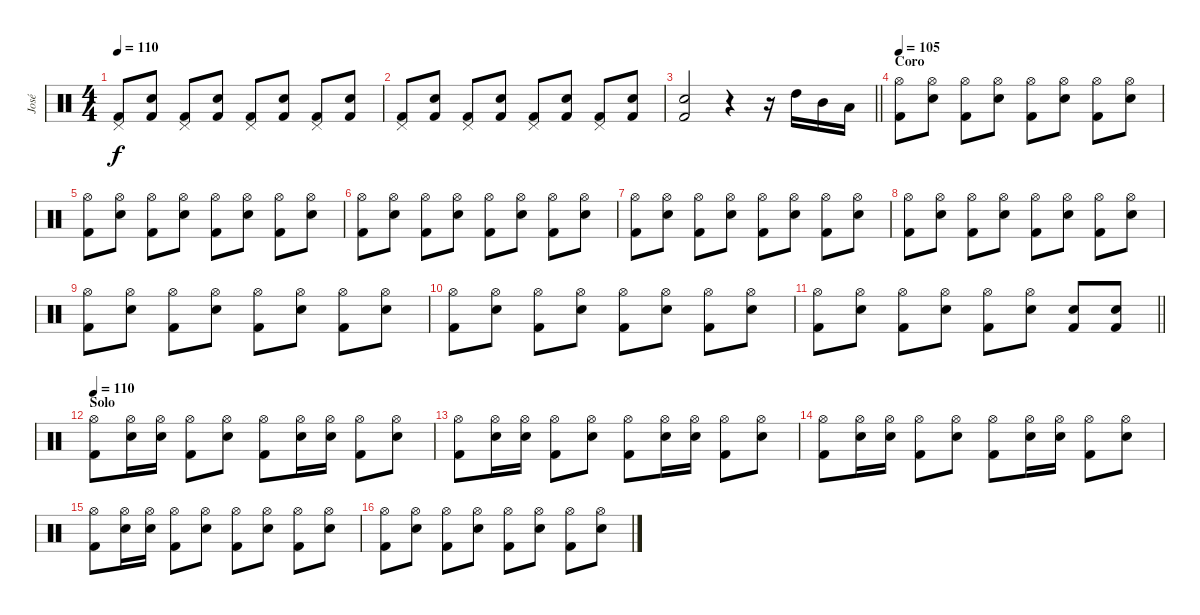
\track ("José" "José") {instrument percussion}
\staff
\articulation defaults
\ts (4 4)
\tempo 110
\clef neutral
\ks c
("Pedal Hi-Hat (hit)" "Kick (hit) 2").8{dy f} ("Electric Snare (hit)" "Kick (hit) 2").8 ("Pedal Hi-Hat (hit)" "Kick (hit) 2").8 ("Electric Snare (hit)" "Kick (hit) 2").8 ("Pedal Hi-Hat (hit)" "Kick (hit) 2").8 ("Electric Snare (hit)" "Kick (hit) 2").8 ("Pedal Hi-Hat (hit)" "Kick (hit) 2").8 ("Electric Snare (hit)" "Kick (hit) 2").8 |
("Pedal Hi-Hat (hit)" "Kick (hit) 2").8 ("Electric Snare (hit)" "Kick (hit) 2").8 ("Pedal Hi-Hat (hit)" "Kick (hit) 2").8 ("Electric Snare (hit)" "Kick (hit) 2").8 ("Pedal Hi-Hat (hit)" "Kick (hit) 2").8 ("Electric Snare (hit)" "Kick (hit) 2").8 ("Pedal Hi-Hat (hit)" "Kick (hit) 2").8 ("Electric Snare (hit)" "Kick (hit) 2").8 |
\barLineRight lightlight
("Electric Snare (hit)" "Kick (hit) 2").2 r.4 r.16 "High Tom (hit)".16 "Mid Tom (hit)".16 "Low Tom (hit)".16 |
\section ("" "Coro")
\tempo 105
("Hi-Hat (open)" "Kick (hit) 2").8 ("Hi-Hat (open)" "Electric Snare (hit)").8 ("Hi-Hat (open)" "Kick (hit) 2").8 ("Hi-Hat (open)" "Electric Snare (hit)").8 ("Hi-Hat (open)" "Kick (hit) 2").8 ("Hi-Hat (open)" "Electric Snare (hit)").8 ("Hi-Hat (open)" "Kick (hit) 2").8 ("Hi-Hat (open)" "Electric Snare (hit)").8 |
("Hi-Hat (open)" "Kick (hit) 2").8 ("Hi-Hat (open)" "Electric Snare (hit)").8 ("Hi-Hat (open)" "Kick (hit) 2").8 ("Hi-Hat (open)" "Electric Snare (hit)").8 ("Hi-Hat (open)" "Kick (hit) 2").8 ("Hi-Hat (open)" "Electric Snare (hit)").8 ("Hi-Hat (open)" "Kick (hit) 2").8 ("Hi-Hat (open)" "Electric Snare (hit)").8 |
("Hi-Hat (open)" "Kick (hit) 2").8 ("Hi-Hat (open)" "Electric Snare (hit)").8 ("Hi-Hat (open)" "Kick (hit) 2").8 ("Hi-Hat (open)" "Electric Snare (hit)").8 ("Hi-Hat (open)" "Kick (hit) 2").8 ("Hi-Hat (open)" "Electric Snare (hit)").8 ("Hi-Hat (open)" "Kick (hit) 2").8 ("Hi-Hat (open)" "Electric Snare (hit)").8 |
("Hi-Hat (open)" "Kick (hit) 2").8 ("Hi-Hat (open)" "Electric Snare (hit)").8 ("Hi-Hat (open)" "Kick (hit) 2").8 ("Hi-Hat (open)" "Electric Snare (hit)").8 ("Hi-Hat (open)" "Kick (hit) 2").8 ("Hi-Hat (open)" "Electric Snare (hit)").8 ("Hi-Hat (open)" "Kick (hit) 2").8 ("Hi-Hat (open)" "Electric Snare (hit)").8 |
("Hi-Hat (open)" "Kick (hit) 2").8 ("Hi-Hat (open)" "Electric Snare (hit)").8 ("Hi-Hat (open)" "Kick (hit) 2").8 ("Hi-Hat (open)" "Electric Snare (hit)").8 ("Hi-Hat (open)" "Kick (hit) 2").8 ("Hi-Hat (open)" "Electric Snare (hit)").8 ("Hi-Hat (open)" "Kick (hit) 2").8 ("Hi-Hat (open)" "Electric Snare (hit)").8 |
("Hi-Hat (open)" "Kick (hit) 2").8 ("Hi-Hat (open)" "Electric Snare (hit)").8 ("Hi-Hat (open)" "Kick (hit) 2").8 ("Hi-Hat (open)" "Electric Snare (hit)").8 ("Hi-Hat (open)" "Kick (hit) 2").8 ("Hi-Hat (open)" "Electric Snare (hit)").8 ("Hi-Hat (open)" "Kick (hit) 2").8 ("Hi-Hat (open)" "Electric Snare (hit)").8 |
("Hi-Hat (open)" "Kick (hit) 2").8 ("Hi-Hat (open)" "Electric Snare (hit)").8 ("Hi-Hat (open)" "Kick (hit) 2").8 ("Hi-Hat (open)" "Electric Snare (hit)").8 ("Hi-Hat (open)" "Kick (hit) 2").8 ("Hi-Hat (open)" "Electric Snare (hit)").8 ("Hi-Hat (open)" "Kick (hit) 2").8 ("Hi-Hat (open)" "Electric Snare (hit)").8 |
\barLineRight lightlight
("Hi-Hat (open)" "Kick (hit) 2").8 ("Hi-Hat (open)" "Electric Snare (hit)").8 ("Hi-Hat (open)" "Kick (hit) 2").8 ("Hi-Hat (open)" "Electric Snare (hit)").8 ("Hi-Hat (open)" "Kick (hit) 2").8 ("Hi-Hat (open)" "Electric Snare (hit)").8 ("Electric Snare (hit)" "Kick (hit) 2").8 ("Electric Snare (hit)" "Kick (hit) 2").8 |
\section ("" "Solo")
\tempo 120
\tempo 110
("Hi-Hat (open)" "Kick (hit) 2").8 ("Hi-Hat (open)" "Electric Snare (hit)").16 ("Hi-Hat (open)" "Electric Snare (hit)").16 ("Hi-Hat (open)" "Kick (hit) 2").8 ("Hi-Hat (open)" "Electric Snare (hit)").8 ("Hi-Hat (open)" "Kick (hit) 2").8 ("Hi-Hat (open)" "Electric Snare (hit)").16 ("Hi-Hat (open)" "Electric Snare (hit)").16 ("Hi-Hat (open)" "Kick (hit) 2").8 ("Hi-Hat (open)" "Electric Snare (hit)").8 |
("Hi-Hat (open)" "Kick (hit) 2").8 ("Hi-Hat (open)" "Electric Snare (hit)").16 ("Hi-Hat (open)" "Electric Snare (hit)").16 ("Hi-Hat (open)" "Kick (hit) 2").8 ("Hi-Hat (open)" "Electric Snare (hit)").8 ("Hi-Hat (open)" "Kick (hit) 2").8 ("Hi-Hat (open)" "Electric Snare (hit)").16 ("Hi-Hat (open)" "Electric Snare (hit)").16 ("Hi-Hat (open)" "Kick (hit) 2").8 ("Hi-Hat (open)" "Electric Snare (hit)").8 |
("Hi-Hat (open)" "Kick (hit) 2").8 ("Hi-Hat (open)" "Electric Snare (hit)").16 ("Hi-Hat (open)" "Electric Snare (hit)").16 ("Hi-Hat (open)" "Kick (hit) 2").8 ("Hi-Hat (open)" "Electric Snare (hit)").8 ("Hi-Hat (open)" "Kick (hit) 2").8 ("Hi-Hat (open)" "Electric Snare (hit)").16 ("Hi-Hat (open)" "Electric Snare (hit)").16 ("Hi-Hat (open)" "Kick (hit) 2").8 ("Hi-Hat (open)" "Electric Snare (hit)").8 |
("Hi-Hat (open)" "Kick (hit) 2").8 ("Hi-Hat (open)" "Electric Snare (hit)").16 ("Hi-Hat (open)" "Electric Snare (hit)").16 ("Hi-Hat (open)" "Kick (hit) 2").8 ("Hi-Hat (open)" "Electric Snare (hit)").8 ("Hi-Hat (open)" "Kick (hit) 2").8 ("Hi-Hat (open)" "Electric Snare (hit)").8 ("Hi-Hat (open)" "Kick (hit) 2").8 ("Hi-Hat (open)" "Electric Snare (hit)").8 |
("Hi-Hat (open)" "Kick (hit) 2").8 ("Hi-Hat (open)" "Electric Snare (hit)").8 ("Hi-Hat (open)" "Kick (hit) 2").8 ("Hi-Hat (open)" "Electric Snare (hit)").8 ("Hi-Hat (open)" "Kick (hit) 2").8 ("Hi-Hat (open)" "Electric Snare (hit)").8 ("Hi-Hat (open)" "Kick (hit) 2").8 ("Hi-Hat (open)" "Electric Snare (hit)").8
